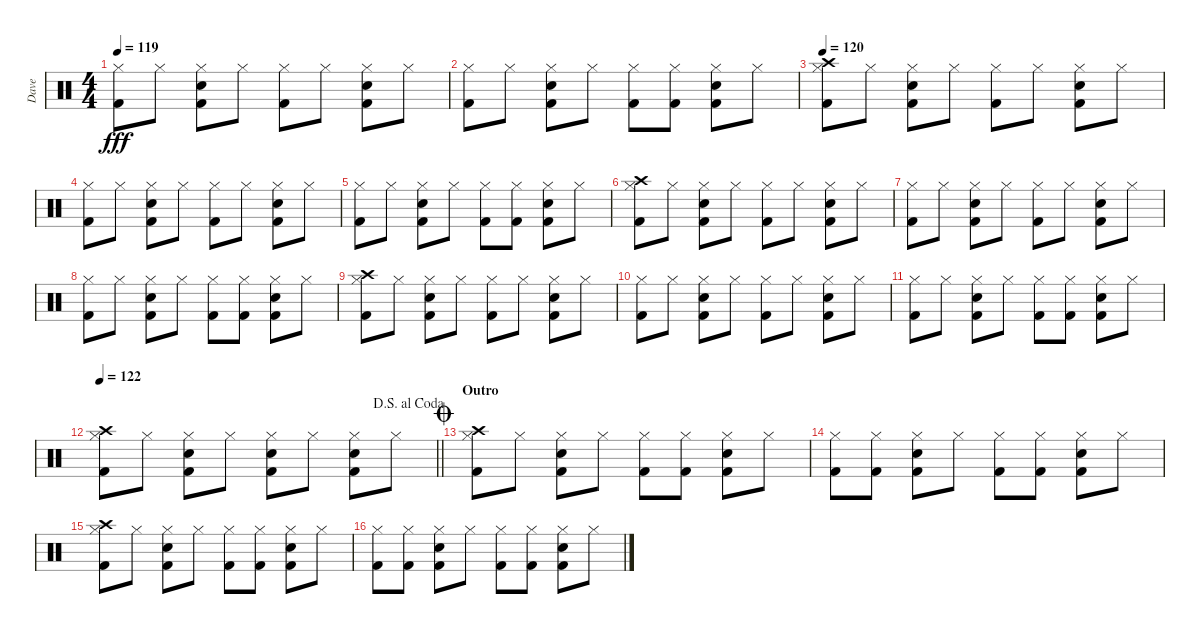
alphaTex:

\track ("Dave" "Dave") {instrument percussion}
\staff {score}
\articulation defaults
\ts (4 4)
\tempo 119
\clef neutral
\ks c
("Hi-Hat (closed)" "Kick (hit) 2").8{dy fff} "Hi-Hat (closed)".8 ("Hi-Hat (closed)" "Snare (hit) 2" "Kick (hit) 2").8 "Hi-Hat (closed)".8 ("Hi-Hat (closed)" "Kick (hit) 2").8 "Hi-Hat (closed)".8 ("Hi-Hat (closed)" "Snare (hit) 2" "Kick (hit) 2").8 "Hi-Hat (closed)".8 |
("Hi-Hat (closed)" "Kick (hit) 2").8 "Hi-Hat (closed)".8 ("Hi-Hat (closed)" "Snare (hit) 2" "Kick (hit) 2").8 "Hi-Hat (closed)".8 ("Hi-Hat (closed)" "Kick (hit) 2").8 ("Hi-Hat (closed)" "Kick (hit) 2").8 ("Hi-Hat (closed)" "Snare (hit) 2" "Kick (hit) 2").8 "Hi-Hat (closed)".8 |
\tempo 120
("Crash high (hit)" "Hi-Hat (closed)" "Kick (hit) 2").8 "Hi-Hat (closed)".8 ("Hi-Hat (closed)" "Snare (hit) 2" "Kick (hit) 2").8 "Hi-Hat (closed)".8 ("Hi-Hat (closed)" "Kick (hit) 2").8 "Hi-Hat (closed)".8 ("Hi-Hat (closed)" "Snare (hit) 2" "Kick (hit) 2").8 "Hi-Hat (closed)".8 |
("Hi-Hat (closed)" "Kick (hit) 2").8 "Hi-Hat (closed)".8 ("Hi-Hat (closed)" "Snare (hit) 2" "Kick (hit) 2").8 "Hi-Hat (closed)".8 ("Hi-Hat (closed)" "Kick (hit) 2").8 "Hi-Hat (closed)".8 ("Hi-Hat (closed)" "Snare (hit) 2" "Kick (hit) 2").8 "Hi-Hat (closed)".8 |
("Hi-Hat (closed)" "Kick (hit) 2").8 "Hi-Hat (closed)".8 ("Hi-Hat (closed)" "Snare (hit) 2" "Kick (hit) 2").8 "Hi-Hat (closed)".8 ("Hi-Hat (closed)" "Kick (hit) 2").8 ("Hi-Hat (closed)" "Kick (hit) 2").8 ("Hi-Hat (closed)" "Snare (hit) 2" "Kick (hit) 2").8 "Hi-Hat (closed)".8 |
("Crash high (hit)" "Hi-Hat (closed)" "Kick (hit) 2").8 "Hi-Hat (closed)".8 ("Hi-Hat (closed)" "Snare (hit) 2" "Kick (hit) 2").8 "Hi-Hat (closed)".8 ("Hi-Hat (closed)" "Kick (hit) 2").8 "Hi-Hat (closed)".8 ("Hi-Hat (closed)" "Snare (hit) 2" "Kick (hit) 2").8 "Hi-Hat (closed)".8 |
("Hi-Hat (closed)" "Kick (hit) 2").8 "Hi-Hat (closed)".8 ("Hi-Hat (closed)" "Snare (hit) 2" "Kick (hit) 2").8 "Hi-Hat (closed)".8 ("Hi-Hat (closed)" "Kick (hit) 2").8 "Hi-Hat (closed)".8 ("Hi-Hat (closed)" "Snare (hit) 2" "Kick (hit) 2").8 "Hi-Hat (closed)".8 |
("Hi-Hat (closed)" "Kick (hit) 2").8 "Hi-Hat (closed)".8 ("Hi-Hat (closed)" "Snare (hit) 2" "Kick (hit) 2").8 "Hi-Hat (closed)".8 ("Hi-Hat (closed)" "Kick (hit) 2").8 ("Hi-Hat (closed)" "Kick (hit) 2").8 ("Hi-Hat (closed)" "Snare (hit) 2" "Kick (hit) 2").8 "Hi-Hat (closed)".8 |
("Crash high (hit)" "Hi-Hat (closed)" "Kick (hit) 2").8 "Hi-Hat (closed)".8 ("Hi-Hat (closed)" "Snare (hit) 2" "Kick (hit) 2").8 "Hi-Hat (closed)".8 ("Hi-Hat (closed)" "Kick (hit) 2").8 "Hi-Hat (closed)".8 ("Hi-Hat (closed)" "Snare (hit) 2" "Kick (hit) 2").8 "Hi-Hat (closed)".8 |
("Hi-Hat (closed)" "Kick (hit) 2").8 "Hi-Hat (closed)".8 ("Hi-Hat (closed)" "Snare (hit) 2" "Kick (hit) 2").8 "Hi-Hat (closed)".8 ("Hi-Hat (closed)" "Kick (hit) 2").8 "Hi-Hat (closed)".8 ("Hi-Hat (closed)" "Snare (hit) 2" "Kick (hit) 2").8 "Hi-Hat (closed)".8 |
("Hi-Hat (closed)" "Kick (hit) 2").8 "Hi-Hat (closed)".8 ("Hi-Hat (closed)" "Snare (hit) 2" "Kick (hit) 2").8 "Hi-Hat (closed)".8 ("Hi-Hat (closed)" "Kick (hit) 2").8 ("Hi-Hat (closed)" "Kick (hit) 2").8 ("Hi-Hat (closed)" "Snare (hit) 2" "Kick (hit) 2").8 "Hi-Hat (closed)".8 |
\jump dalsegnoalcoda
\tempo 122
\barLineRight lightlight
("Crash high (hit)" "Hi-Hat (closed)" "Kick (hit) 2").8 "Hi-Hat (closed)".8 ("Hi-Hat (closed)" "Snare (hit) 2" "Kick (hit) 2").8 "Hi-Hat (closed)".8 ("Hi-Hat (closed)" "Snare (hit) 2" "Kick (hit) 2").8 "Hi-Hat (closed)".8 ("Hi-Hat (closed)" "Snare (hit) 2" "Kick (hit) 2").8 "Hi-Hat (closed)".8 |
\section ("" "Outro")
\jump coda
("Crash high (hit)" "Hi-Hat (closed)" "Kick (hit) 2").8 "Hi-Hat (closed)".8 ("Hi-Hat (closed)" "Snare (hit) 2" "Kick (hit) 2").8 "Hi-Hat (closed)".8 ("Hi-Hat (closed)" "Kick (hit) 2").8 ("Hi-Hat (closed)" "Kick (hit) 2").8 ("Hi-Hat (closed)" "Snare (hit) 2" "Kick (hit) 2").8 "Hi-Hat (closed)".8 |
("Hi-Hat (closed)" "Kick (hit) 2").8 ("Hi-Hat (closed)" "Kick (hit) 2").8 ("Hi-Hat (closed)" "Snare (hit) 2" "Kick (hit) 2").8 "Hi-Hat (closed)".8 ("Hi-Hat (closed)" "Kick (hit) 2").8 ("Hi-Hat (closed)" "Kick (hit) 2").8 ("Hi-Hat (closed)" "Snare (hit) 2" "Kick (hit) 2").8 "Hi-Hat (closed)".8 |
("Crash high (hit)" "Hi-Hat (closed)" "Kick (hit) 2").8 "Hi-Hat (closed)".8 ("Hi-Hat (closed)" "Snare (hit) 2" "Kick (hit) 2").8 "Hi-Hat (closed)".8 ("Hi-Hat (closed)" "Kick (hit) 2").8 ("Hi-Hat (closed)" "Kick (hit) 2").8 ("Hi-Hat (closed)" "Snare (hit) 2" "Kick (hit) 2").8 "Hi-Hat (closed)".8 |
("Hi-Hat (closed)" "Kick (hit) 2").8 ("Hi-Hat (closed)" "Kick (hit) 2").8 ("Hi-Hat (closed)" "Snare (hit) 2" "Kick (hit) 2").8 "Hi-Hat (closed)".8 ("Hi-Hat (closed)" "Kick (hit) 2").8 ("Hi-Hat (closed)" "Kick (hit) 2").8 ("Hi-Hat (closed)" "Snare (hit) 2" "Kick (hit) 2").8 "Hi-Hat (closed)".8
